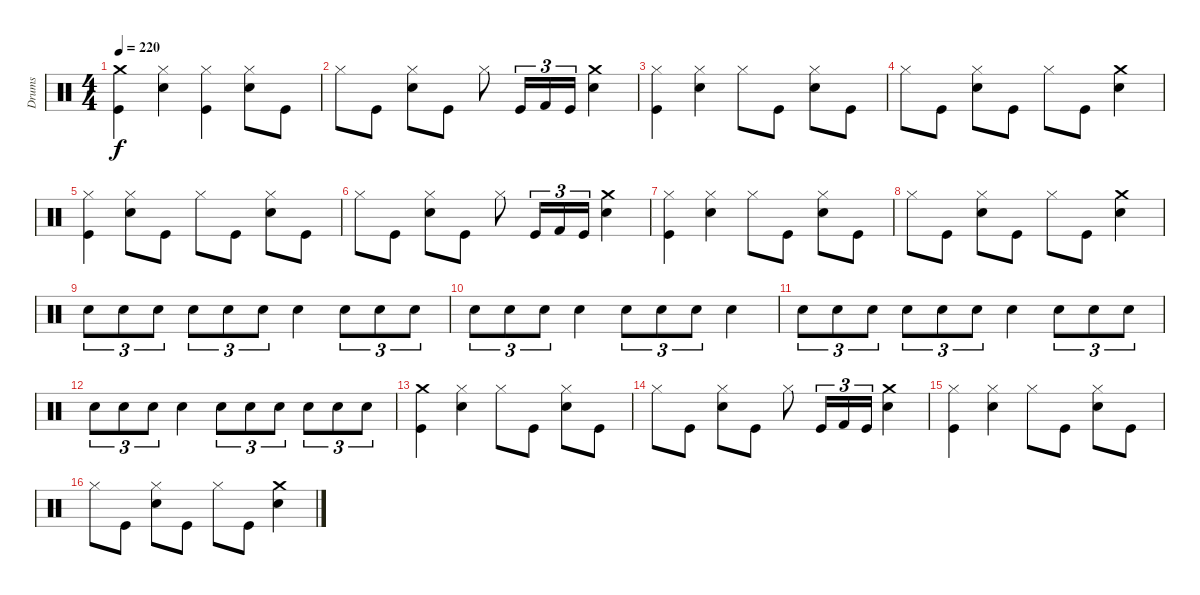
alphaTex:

\track ("Drums" "Drums") {instrument percussion}
\staff {score}
\articulation defaults
\ts (4 4)
\tempo 220
\clef neutral
\ks c
("Kick (hit)" "Crash medium (hit)").4{dy f} ("Hi-Hat (closed)" "Snare (hit) 2").4 ("Kick (hit)" "Hi-Hat (closed)").4 ("Hi-Hat (closed)" "Snare (hit) 2").8 "Kick (hit)".8 |
"Hi-Hat (closed)".8 "Kick (hit)".8 ("Snare (hit) 2" "Hi-Hat (closed)").8 "Kick (hit)".8 "Hi-Hat (closed)".8 "Kick (hit)".16{tu (3 2)} "Kick (hit) 2".16{tu (3 2)} "Kick (hit)".16{tu (3 2)} ("Crash medium (hit)" "Snare (hit) 2").4 |
("Hi-Hat (closed)" "Kick (hit)").4 ("Snare (hit) 2" "Hi-Hat (closed)").4 "Hi-Hat (closed)".8 "Kick (hit)".8 ("Snare (hit) 2" "Hi-Hat (closed)").8 "Kick (hit)".8 |
"Hi-Hat (closed)".8 "Kick (hit)".8 ("Snare (hit) 2" "Hi-Hat (closed)").8 "Kick (hit)".8 "Hi-Hat (closed)".8 "Kick (hit)".8 ("Crash medium (hit)" "Snare (hit) 2").4 |
("Kick (hit)" "Hi-Hat (closed)").4 ("Snare (hit) 2" "Hi-Hat (closed)").8 "Kick (hit)".8 "Hi-Hat (closed)".8 "Kick (hit)".8 ("Hi-Hat (closed)" "Snare (hit) 2").8 "Kick (hit)".8 |
"Hi-Hat (closed)".8 "Kick (hit)".8 ("Snare (hit) 2" "Hi-Hat (closed)").8 "Kick (hit)".8 "Hi-Hat (closed)".8 "Kick (hit)".16{tu (3 2)} "Kick (hit) 2".16{tu (3 2)} "Kick (hit)".16{tu (3 2)} ("Crash medium (hit)" "Snare (hit) 2").4 |
("Hi-Hat (closed)" "Kick (hit)").4 ("Snare (hit) 2" "Hi-Hat (closed)").4 "Hi-Hat (closed)".8 "Kick (hit)".8 ("Snare (hit) 2" "Hi-Hat (closed)").8 "Kick (hit)".8 |
"Hi-Hat (closed)".8 "Kick (hit)".8 ("Snare (hit) 2" "Hi-Hat (closed)").8 "Kick (hit)".8 "Hi-Hat (closed)".8 "Kick (hit)".8 ("Crash medium (hit)" "Snare (hit) 2").4 |
"Snare (hit) 2".8{tu (3 2)} "Snare (hit) 2".8{tu (3 2)} "Snare (hit) 2".8{tu (3 2)} "Snare (hit) 2".8{tu (3 2)} "Snare (hit) 2".8{tu (3 2)} "Snare (hit) 2".8{tu (3 2)} "Snare (hit) 2".4 "Snare (hit) 2".8{tu (3 2)} "Snare (hit) 2".8{tu (3 2)} "Snare (hit) 2".8{tu (3 2)} |
"Snare (hit) 2".8{tu (3 2)} "Snare (hit) 2".8{tu (3 2)} "Snare (hit) 2".8{tu (3 2)} "Snare (hit) 2".4 "Snare (hit) 2".8{tu (3 2)} "Snare (hit) 2".8{tu (3 2)} "Snare (hit) 2".8{tu (3 2)} "Snare (hit) 2".4 |
"Snare (hit) 2".8{tu (3 2)} "Snare (hit) 2".8{tu (3 2)} "Snare (hit) 2".8{tu (3 2)} "Snare (hit) 2".8{tu (3 2)} "Snare (hit) 2".8{tu (3 2)} "Snare (hit) 2".8{tu (3 2)} "Snare (hit) 2".4 "Snare (hit) 2".8{tu (3 2)} "Snare (hit) 2".8{tu (3 2)} "Snare (hit) 2".8{tu (3 2)} |
"Snare (hit) 2".8{tu (3 2)} "Snare (hit) 2".8{tu (3 2)} "Snare (hit) 2".8{tu (3 2)} "Snare (hit) 2".4 "Snare (hit) 2".8{tu (3 2)} "Snare (hit) 2".8{tu (3 2)} "Snare (hit) 2".8{tu (3 2)} "Snare (hit) 2".8{tu (3 2)} "Snare (hit) 2".8{tu (3 2)} "Snare (hit) 2".8{tu (3 2)} |
("Kick (hit)" "Crash medium (hit)").4 ("Hi-Hat (closed)" "Snare (hit) 2").4 "Hi-Hat (closed)".8 "Kick (hit)".8 ("Hi-Hat (closed)" "Snare (hit) 2").8 "Kick (hit)".8 |
"Hi-Hat (closed)".8 "Kick (hit)".8 ("Snare (hit) 2" "Hi-Hat (closed)").8 "Kick (hit)".8 "Hi-Hat (closed)".8 "Kick (hit)".16{tu (3 2)} "Kick (hit) 2".16{tu (3 2)} "Kick (hit)".16{tu (3 2)} ("Crash medium (hit)" "Snare (hit) 2").4 |
("Hi-Hat (closed)" "Kick (hit)").4 ("Snare (hit) 2" "Hi-Hat (closed)").4 "Hi-Hat (closed)".8 "Kick (hit)".8 ("Snare (hit) 2" "Hi-Hat (closed)").8 "Kick (hit)".8 |
"Hi-Hat (closed)".8 "Kick (hit)".8 ("Snare (hit) 2" "Hi-Hat (closed)").8 "Kick (hit)".8 "Hi-Hat (closed)".8 "Kick (hit)".8 ("Crash medium (hit)" "Snare (hit) 2").4
